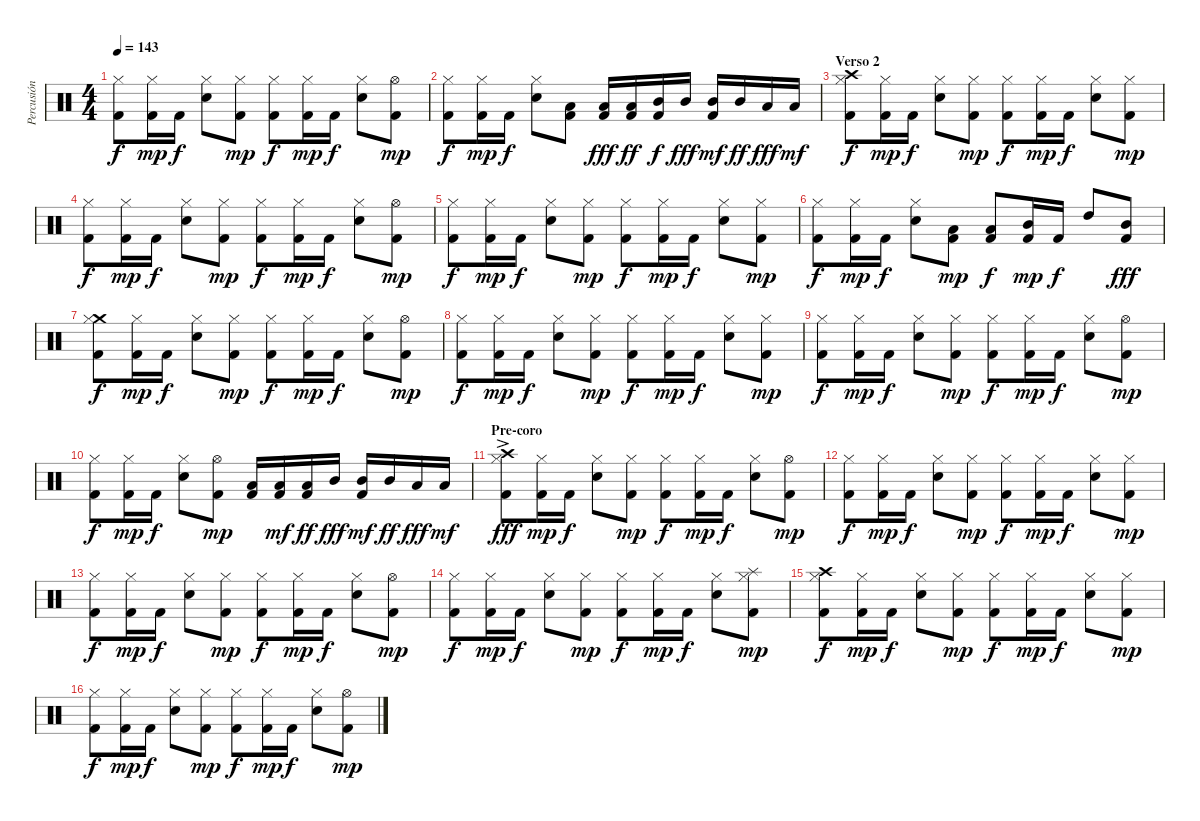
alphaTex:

\track ("Percusión" "Percusión") {instrument percussion}
\staff {score}
\articulation defaults
\ts (4 4)
\tempo 143
\clef neutral
\ks c
("Hi-Hat (closed)" "Kick (hit) 2").8{dy f} ("Hi-Hat (closed)" "Kick (hit) 2").16{dy mp} "Kick (hit) 2".16{dy f} ("Hi-Hat (closed)" "Electric Snare (hit)").8 ("Hi-Hat (closed)" "Kick (hit) 2").8{dy mp} ("Hi-Hat (closed)" "Kick (hit) 2").8{dy f} ("Hi-Hat (closed)" "Kick (hit) 2").16{dy mp} "Kick (hit) 2".16{dy f} ("Hi-Hat (closed)" "Electric Snare (hit)").8 ("Hi-Hat (open)" "Kick (hit) 2").8{dy mp} |
("Hi-Hat (closed)" "Kick (hit) 2").8{dy f} ("Hi-Hat (closed)" "Kick (hit) 2").16{dy mp} "Kick (hit) 2".16{dy f} ("Hi-Hat (closed)" "Electric Snare (hit)").8 ("Low Tom (hit)" "Kick (hit) 2").8 ("Low Tom (hit)" "Kick (hit) 2").16{dy fff} ("Low Tom (hit)" "Kick (hit) 2").16{dy ff} ("Mid Tom (hit)" "Kick (hit) 2").16{dy f} "Mid Tom (hit)".16{dy fff} ("Mid Tom (hit)" "Kick (hit) 2").16{dy mf} "Mid Tom (hit)".16{dy ff} "Low Tom (hit)".16{dy fff} "Low Tom (hit)".16{dy mf} |
\section ("" "Verso 2")
("Crash high (hit)" "Hi-Hat (closed)" "Kick (hit) 2").8{dy f} ("Hi-Hat (closed)" "Kick (hit) 2").16{dy mp} "Kick (hit) 2".16{dy f} ("Hi-Hat (closed)" "Electric Snare (hit)").8 ("Hi-Hat (closed)" "Kick (hit) 2").8{dy mp} ("Hi-Hat (closed)" "Kick (hit) 2").8{dy f} ("Hi-Hat (closed)" "Kick (hit) 2").16{dy mp} "Kick (hit) 2".16{dy f} ("Hi-Hat (closed)" "Electric Snare (hit)").8 ("Hi-Hat (closed)" "Kick (hit) 2").8{dy mp} |
("Hi-Hat (closed)" "Kick (hit) 2").8{dy f} ("Hi-Hat (closed)" "Kick (hit) 2").16{dy mp} "Kick (hit) 2".16{dy f} ("Hi-Hat (closed)" "Electric Snare (hit)").8 ("Hi-Hat (closed)" "Kick (hit) 2").8{dy mp} ("Hi-Hat (closed)" "Kick (hit) 2").8{dy f} ("Hi-Hat (closed)" "Kick (hit) 2").16{dy mp} "Kick (hit) 2".16{dy f} ("Hi-Hat (closed)" "Electric Snare (hit)").8 ("Hi-Hat (open)" "Kick (hit) 2").8{dy mp} |
("Hi-Hat (closed)" "Kick (hit) 2").8{dy f} ("Hi-Hat (closed)" "Kick (hit) 2").16{dy mp} "Kick (hit) 2".16{dy f} ("Hi-Hat (closed)" "Electric Snare (hit)").8 ("Hi-Hat (closed)" "Kick (hit) 2").8{dy mp} ("Hi-Hat (closed)" "Kick (hit) 2").8{dy f} ("Hi-Hat (closed)" "Kick (hit) 2").16{dy mp} "Kick (hit) 2".16{dy f} ("Hi-Hat (closed)" "Electric Snare (hit)").8 ("Hi-Hat (closed)" "Kick (hit) 2").8{dy mp} |
("Hi-Hat (closed)" "Kick (hit) 2").8{dy f} ("Hi-Hat (closed)" "Kick (hit) 2").16{dy mp} "Kick (hit) 2".16{dy f} ("Hi-Hat (closed)" "Electric Snare (hit)").8 ("Low Tom (hit)" "Kick (hit) 2").8{dy mp} ("Low Tom (hit)" "Kick (hit) 2").8{dy f} ("Mid Tom (hit)" "Kick (hit) 2").16{dy mp} "Kick (hit) 2".16{dy f} "High Tom (hit)".8 ("Mid Tom (hit)" "Kick (hit) 2").8{dy fff} |
("Crash medium (hit)" "Hi-Hat (closed)" "Kick (hit) 2").8{dy f} ("Hi-Hat (closed)" "Kick (hit) 2").16{dy mp} "Kick (hit) 2".16{dy f} ("Hi-Hat (closed)" "Electric Snare (hit)").8 ("Hi-Hat (closed)" "Kick (hit) 2").8{dy mp} ("Hi-Hat (closed)" "Kick (hit) 2").8{dy f} ("Hi-Hat (closed)" "Kick (hit) 2").16{dy mp} "Kick (hit) 2".16{dy f} ("Hi-Hat (closed)" "Electric Snare (hit)").8 ("Hi-Hat (open)" "Kick (hit) 2").8{dy mp} |
("Hi-Hat (closed)" "Kick (hit) 2").8{dy f} ("Hi-Hat (closed)" "Kick (hit) 2").16{dy mp} "Kick (hit) 2".16{dy f} ("Hi-Hat (closed)" "Electric Snare (hit)").8 ("Hi-Hat (closed)" "Kick (hit) 2").8{dy mp} ("Hi-Hat (closed)" "Kick (hit) 2").8{dy f} ("Hi-Hat (closed)" "Kick (hit) 2").16{dy mp} "Kick (hit) 2".16{dy f} ("Hi-Hat (closed)" "Electric Snare (hit)").8 ("Hi-Hat (closed)" "Kick (hit) 2").8{dy mp} |
("Hi-Hat (closed)" "Kick (hit) 2").8{dy f} ("Hi-Hat (closed)" "Kick (hit) 2").16{dy mp} "Kick (hit) 2".16{dy f} ("Hi-Hat (closed)" "Electric Snare (hit)").8 ("Hi-Hat (closed)" "Kick (hit) 2").8{dy mp} ("Hi-Hat (closed)" "Kick (hit) 2").8{dy f} ("Hi-Hat (closed)" "Kick (hit) 2").16{dy mp} "Kick (hit) 2".16{dy f} ("Hi-Hat (closed)" "Electric Snare (hit)").8 ("Hi-Hat (open)" "Kick (hit) 2").8{dy mp} |
("Hi-Hat (closed)" "Kick (hit) 2").8{dy f} ("Hi-Hat (closed)" "Kick (hit) 2").16{dy mp} "Kick (hit) 2".16{dy f} ("Hi-Hat (closed)" "Electric Snare (hit)").8 ("Hi-Hat (open)" "Kick (hit) 2").8{dy mp} ("Low Tom (hit)" "Kick (hit) 2").16 ("Low Tom (hit)" "Kick (hit) 2").16{dy mf} ("Low Tom (hit)" "Kick (hit) 2").16{dy ff} "Mid Tom (hit)".16{dy fff} ("Mid Tom (hit)" "Kick (hit) 2").16{dy mf} "Mid Tom (hit)".16{dy ff} "Low Tom (hit)".16{dy fff} "Low Tom (hit)".16{dy mf} |
\section ("" "Pre-coro")
("Crash high (hit)"{ac} "Hi-Hat (closed)" "Kick (hit) 2").8{dy fff} ("Hi-Hat (closed)" "Kick (hit) 2").16{dy mp} "Kick (hit) 2".16{dy f} ("Hi-Hat (closed)" "Electric Snare (hit)").8 ("Hi-Hat (closed)" "Kick (hit) 2").8{dy mp} ("Hi-Hat (closed)" "Kick (hit) 2").8{dy f} ("Hi-Hat (closed)" "Kick (hit) 2").16{dy mp} "Kick (hit) 2".16{dy f} ("Hi-Hat (closed)" "Electric Snare (hit)").8 ("Hi-Hat (open)" "Kick (hit) 2").8{dy mp} |
("Hi-Hat (closed)" "Kick (hit) 2").8{dy f} ("Hi-Hat (closed)" "Kick (hit) 2").16{dy mp} "Kick (hit) 2".16{dy f} ("Hi-Hat (closed)" "Electric Snare (hit)").8 ("Hi-Hat (closed)" "Kick (hit) 2").8{dy mp} ("Hi-Hat (closed)" "Kick (hit) 2").8{dy f} ("Hi-Hat (closed)" "Kick (hit) 2").16{dy mp} "Kick (hit) 2".16{dy f} ("Hi-Hat (closed)" "Electric Snare (hit)").8 ("Hi-Hat (closed)" "Kick (hit) 2").8{dy mp} |
("Hi-Hat (closed)" "Kick (hit) 2").8{dy f} ("Hi-Hat (closed)" "Kick (hit) 2").16{dy mp} "Kick (hit) 2".16{dy f} ("Hi-Hat (closed)" "Electric Snare (hit)").8 ("Hi-Hat (closed)" "Kick (hit) 2").8{dy mp} ("Hi-Hat (closed)" "Kick (hit) 2").8{dy f} ("Hi-Hat (closed)" "Kick (hit) 2").16{dy mp} "Kick (hit) 2".16{dy f} ("Hi-Hat (closed)" "Electric Snare (hit)").8 ("Hi-Hat (open)" "Kick (hit) 2").8{dy mp} |
("Hi-Hat (closed)" "Kick (hit) 2").8{dy f} ("Hi-Hat (closed)" "Kick (hit) 2").16{dy mp} "Kick (hit) 2".16{dy f} ("Hi-Hat (closed)" "Electric Snare (hit)").8 ("Hi-Hat (closed)" "Kick (hit) 2").8{dy mp} ("Hi-Hat (closed)" "Kick (hit) 2").8{dy f} ("Hi-Hat (closed)" "Kick (hit) 2").16{dy mp} "Kick (hit) 2".16{dy f} ("Hi-Hat (closed)" "Electric Snare (hit)").8 ("Splash (hit)" "Hi-Hat (closed)" "Kick (hit) 2").8{dy mp} |
("Crash high (hit)" "Hi-Hat (closed)" "Kick (hit) 2").8{dy f} ("Hi-Hat (closed)" "Kick (hit) 2").16{dy mp} "Kick (hit) 2".16{dy f} ("Hi-Hat (closed)" "Electric Snare (hit)").8 ("Hi-Hat (closed)" "Kick (hit) 2").8{dy mp} ("Hi-Hat (closed)" "Kick (hit) 2").8{dy f} ("Hi-Hat (closed)" "Kick (hit) 2").16{dy mp} "Kick (hit) 2".16{dy f} ("Hi-Hat (closed)" "Electric Snare (hit)").8 ("Hi-Hat (closed)" "Kick (hit) 2").8{dy mp} |
("Hi-Hat (closed)" "Kick (hit) 2").8{dy f} ("Hi-Hat (closed)" "Kick (hit) 2").16{dy mp} "Kick (hit) 2".16{dy f} ("Hi-Hat (closed)" "Electric Snare (hit)").8 ("Hi-Hat (closed)" "Kick (hit) 2").8{dy mp} ("Hi-Hat (closed)" "Kick (hit) 2").8{dy f} ("Hi-Hat (closed)" "Kick (hit) 2").16{dy mp} "Kick (hit) 2".16{dy f} ("Hi-Hat (closed)" "Electric Snare (hit)").8 ("Hi-Hat (open)" "Kick (hit) 2").8{dy mp}
